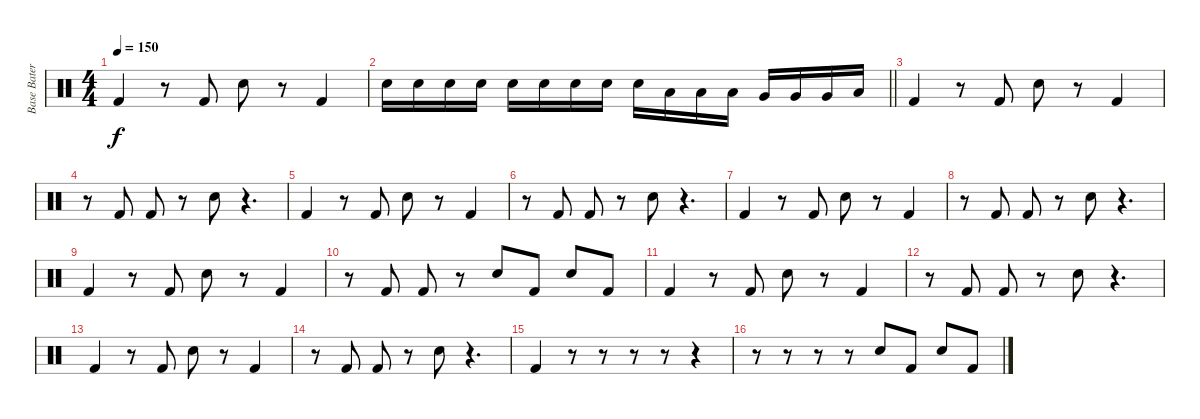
\track ("Base Batería" "Base Bater") {instrument percussion}
\staff {score}
\articulation defaults
\ts (4 4)
\tempo 150
\clef neutral
\ks c "Kick (hit) 2".4{dy f}
r.8 "Kick (hit) 2".8 "Electric Snare (hit)".8 r.8 "Kick (hit) 2".4 |
\barLineRight lightlight "Electric Snare (hit)".16 "Electric Snare (hit)".16 "Electric Snare (hit)".16 "Electric Snare (hit)".16 "Electric Snare (hit)".16 "Electric Snare (hit)".16 "Electric Snare (hit)".16 "Electric Snare (hit)".16 "Electric Snare (hit)".16 "Low Tom (hit)".16 "Low Tom (hit)".16 "Low Tom (hit)".16 "Very Low Tom (hit)".16 "Very Low Tom (hit)".16 "Very Low Tom (hit)".16 "Low Floor Tom (hit)".16
|
"Kick (hit) 2".4 r.8 "Kick (hit) 2".8 "Electric Snare (hit)".8 r.8 "Kick (hit) 2".4 |
r.8 "Kick (hit) 2".8 "Kick (hit) 2".8 r.8 "Electric Snare (hit)".8 r.4{d} |
"Kick (hit) 2".4 r.8 "Kick (hit) 2".8 "Electric Snare (hit)".8 r.8 "Kick (hit) 2".4 |
r.8 "Kick (hit) 2".8 "Kick (hit) 2".8 r.8 "Electric Snare (hit)".8 r.4{d} |
"Kick (hit) 2".4 r.8 "Kick (hit) 2".8 "Electric Snare (hit)".8 r.8 "Kick (hit) 2".4 |
r.8 "Kick (hit) 2".8 "Kick (hit) 2".8 r.8 "Electric Snare (hit)".8 r.4{d} |
"Kick (hit) 2".4 r.8 "Kick (hit) 2".8 "Electric Snare (hit)".8 r.8 "Kick (hit) 2".4 |
r.8 "Kick (hit) 2".8 "Kick (hit) 2".8 r.8 "Electric Snare (hit)".8 "Kick (hit) 2".8 "Electric Snare (hit)".8 "Kick (hit) 2".8 |
"Kick (hit) 2".4 r.8 "Kick (hit) 2".8 "Electric Snare (hit)".8 r.8 "Kick (hit) 2".4 |
r.8 "Kick (hit) 2".8 "Kick (hit) 2".8 r.8 "Electric Snare (hit)".8 r.4{d} |
"Kick (hit) 2".4 r.8 "Kick (hit) 2".8 "Electric Snare (hit)".8 r.8 "Kick (hit) 2".4 |
r.8 "Kick (hit) 2".8 "Kick (hit) 2".8 r.8 "Electric Snare (hit)".8 r.4{d} |
"Kick (hit) 2".4 r.8 r.8 r.8 r.8 r.4 |
r.8 r.8 r.8 r.8 "Electric Snare (hit)".8 "Kick (hit) 2".8 "Electric Snare (hit)".8 "Kick (hit) 2".8
